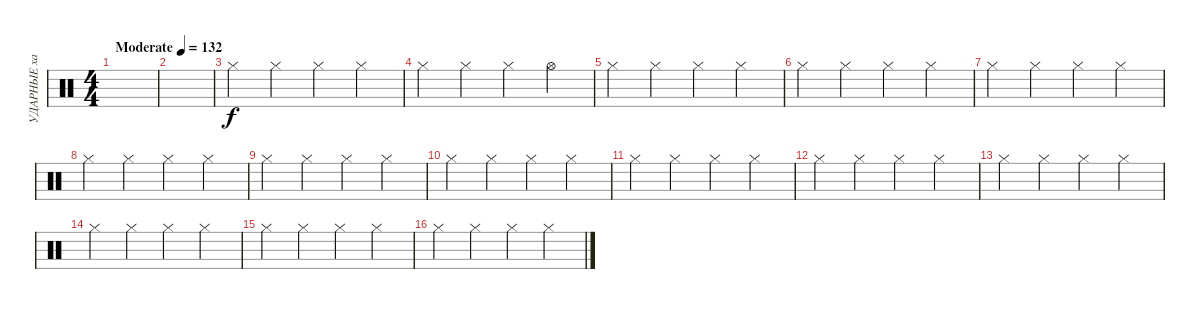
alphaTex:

\track ("УДАРНЫЕ хай хэт" "УДАРНЫЕ ха") {instrument percussion}
\staff {score}
\articulation defaults
\ts (4 4)
\tempo (132 "Moderate")
\clef neutral
\ks c
|
|
"Hi-Hat (closed)".4 "Hi-Hat (closed)".4 "Hi-Hat (closed)".4 "Hi-Hat (closed)".4 |
"Hi-Hat (closed)".4 "Hi-Hat (closed)".4 "Hi-Hat (closed)".4 "Hi-Hat (open)".4 |
"Hi-Hat (closed)".4 "Hi-Hat (closed)".4 "Hi-Hat (closed)".4 "Hi-Hat (closed)".4 |
"Hi-Hat (closed)".4 "Hi-Hat (closed)".4 "Hi-Hat (closed)".4 "Hi-Hat (closed)".4 |
"Hi-Hat (closed)".4 "Hi-Hat (closed)".4 "Hi-Hat (closed)".4 "Hi-Hat (closed)".4 |
"Hi-Hat (closed)".4 "Hi-Hat (closed)".4 "Hi-Hat (closed)".4 "Hi-Hat (closed)".4 |
"Hi-Hat (closed)".4 "Hi-Hat (closed)".4 "Hi-Hat (closed)".4 "Hi-Hat (closed)".4 |
"Hi-Hat (closed)".4 "Hi-Hat (closed)".4 "Hi-Hat (closed)".4 "Hi-Hat (closed)".4 |
"Hi-Hat (closed)".4 "Hi-Hat (closed)".4 "Hi-Hat (closed)".4 "Hi-Hat (closed)".4 |
"Hi-Hat (closed)".4 "Hi-Hat (closed)".4 "Hi-Hat (closed)".4 "Hi-Hat (closed)".4 |
"Hi-Hat (closed)".4 "Hi-Hat (closed)".4 "Hi-Hat (closed)".4 "Hi-Hat (closed)".4 |
"Hi-Hat (closed)".4 "Hi-Hat (closed)".4 "Hi-Hat (closed)".4 "Hi-Hat (closed)".4 |
"Hi-Hat (closed)".4 "Hi-Hat (closed)".4 "Hi-Hat (closed)".4 "Hi-Hat (closed)".4 |
"Hi-Hat (closed)".4 "Hi-Hat (closed)".4 "Hi-Hat (closed)".4 "Hi-Hat (closed)".4
